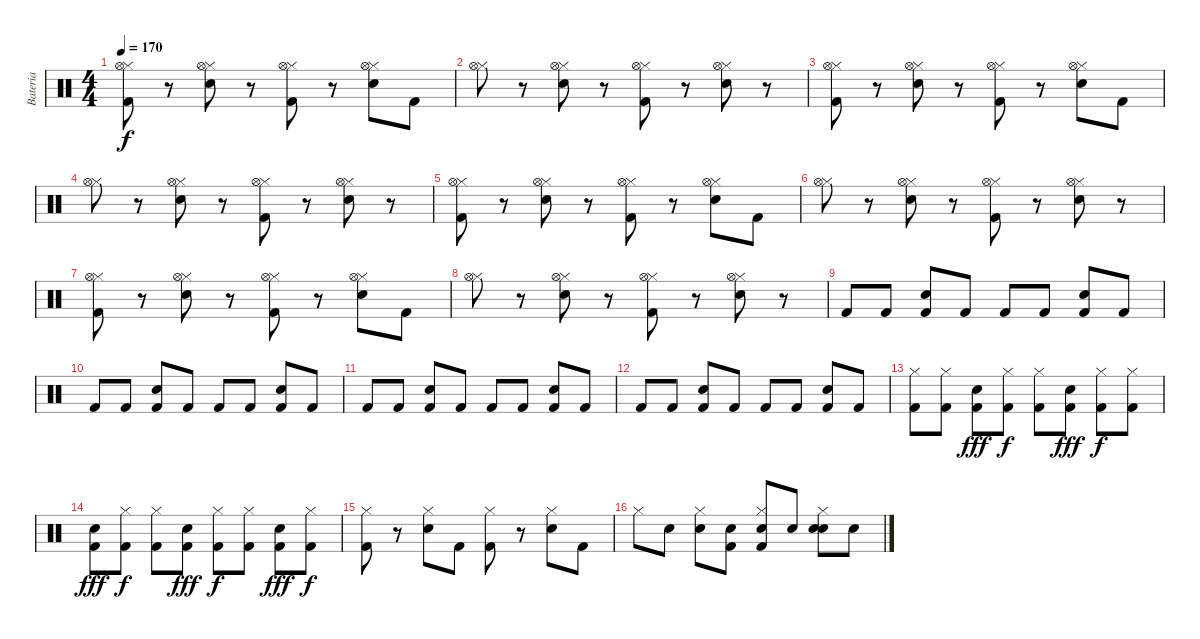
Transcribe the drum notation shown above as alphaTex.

\track ("Bateria" "Bateria") {instrument percussion}
\staff {score}
\articulation defaults
\ts (4 4)
\tempo 170
\clef neutral
\ks c
("Kick (hit) 2" "Hi-Hat (closed)" "Hi-Hat (open)").8{dy f} r.8 ("Snare (hit) 2" "Hi-Hat (closed)" "Hi-Hat (open)").8 r.8 ("Kick (hit) 2" "Hi-Hat (closed)" "Hi-Hat (open)").8 r.8 ("Snare (hit) 2" "Hi-Hat (closed)" "Hi-Hat (open)").8 "Kick (hit) 2".8 |
("Hi-Hat (closed)" "Hi-Hat (open)").8 r.8 ("Snare (hit) 2" "Hi-Hat (closed)" "Hi-Hat (open)").8 r.8 ("Kick (hit) 2" "Hi-Hat (closed)" "Hi-Hat (open)").8 r.8 ("Snare (hit) 2" "Hi-Hat (closed)" "Hi-Hat (open)").8 r.8 |
("Kick (hit) 2" "Hi-Hat (closed)" "Hi-Hat (open)").8 r.8 ("Snare (hit) 2" "Hi-Hat (closed)" "Hi-Hat (open)").8 r.8 ("Kick (hit) 2" "Hi-Hat (closed)" "Hi-Hat (open)").8 r.8 ("Snare (hit) 2" "Hi-Hat (closed)" "Hi-Hat (open)").8 "Kick (hit) 2".8 |
("Hi-Hat (closed)" "Hi-Hat (open)").8 r.8 ("Snare (hit) 2" "Hi-Hat (closed)" "Hi-Hat (open)").8 r.8 ("Kick (hit) 2" "Hi-Hat (closed)" "Hi-Hat (open)").8 r.8 ("Snare (hit) 2" "Hi-Hat (closed)" "Hi-Hat (open)").8 r.8 |
("Kick (hit) 2" "Hi-Hat (closed)" "Hi-Hat (open)").8 r.8 ("Snare (hit) 2" "Hi-Hat (closed)" "Hi-Hat (open)").8 r.8 ("Kick (hit) 2" "Hi-Hat (closed)" "Hi-Hat (open)").8 r.8 ("Snare (hit) 2" "Hi-Hat (closed)" "Hi-Hat (open)").8 "Kick (hit) 2".8 |
("Hi-Hat (closed)" "Hi-Hat (open)").8 r.8 ("Snare (hit) 2" "Hi-Hat (closed)" "Hi-Hat (open)").8 r.8 ("Kick (hit) 2" "Hi-Hat (closed)" "Hi-Hat (open)").8 r.8 ("Snare (hit) 2" "Hi-Hat (closed)" "Hi-Hat (open)").8 r.8 |
("Kick (hit) 2" "Hi-Hat (closed)" "Hi-Hat (open)").8 r.8 ("Snare (hit) 2" "Hi-Hat (closed)" "Hi-Hat (open)").8 r.8 ("Kick (hit) 2" "Hi-Hat (closed)" "Hi-Hat (open)").8 r.8 ("Snare (hit) 2" "Hi-Hat (closed)" "Hi-Hat (open)").8 "Kick (hit) 2".8 |
("Hi-Hat (closed)" "Hi-Hat (open)").8 r.8 ("Snare (hit) 2" "Hi-Hat (closed)" "Hi-Hat (open)").8 r.8 ("Kick (hit) 2" "Hi-Hat (closed)" "Hi-Hat (open)").8 r.8 ("Snare (hit) 2" "Hi-Hat (closed)" "Hi-Hat (open)").8 r.8 |
"Kick (hit) 2".8 "Kick (hit) 2".8 ("Kick (hit) 2" "Snare (hit) 2").8 "Kick (hit) 2".8 "Kick (hit) 2".8 "Kick (hit) 2".8 ("Kick (hit) 2" "Snare (hit) 2").8 "Kick (hit) 2".8 |
"Kick (hit) 2".8 "Kick (hit) 2".8 ("Kick (hit) 2" "Snare (hit) 2").8 "Kick (hit) 2".8 "Kick (hit) 2".8 "Kick (hit) 2".8 ("Kick (hit) 2" "Snare (hit) 2").8 "Kick (hit) 2".8 |
"Kick (hit) 2".8 "Kick (hit) 2".8 ("Kick (hit) 2" "Snare (hit) 2").8 "Kick (hit) 2".8 "Kick (hit) 2".8 "Kick (hit) 2".8 ("Kick (hit) 2" "Snare (hit) 2").8 "Kick (hit) 2".8 |
"Kick (hit) 2".8 "Kick (hit) 2".8 ("Kick (hit) 2" "Snare (hit) 2").8 "Kick (hit) 2".8 "Kick (hit) 2".8 "Kick (hit) 2".8 ("Kick (hit) 2" "Snare (hit) 2").8 "Kick (hit) 2".8 |
("Kick (hit) 2" "Hi-Hat (closed)").8 ("Kick (hit) 2" "Hi-Hat (closed)").8 ("Kick (hit) 2" "Snare (hit) 2").8{dy fff} ("Kick (hit) 2" "Hi-Hat (closed)").8{dy f} ("Kick (hit) 2" "Hi-Hat (closed)").8 ("Kick (hit) 2" "Snare (hit) 2").8{dy fff} ("Kick (hit) 2" "Hi-Hat (closed)").8{dy f} ("Kick (hit) 2" "Hi-Hat (closed)").8 |
("Kick (hit) 2" "Snare (hit) 2").8{dy fff} ("Kick (hit) 2" "Hi-Hat (closed)").8{dy f} ("Kick (hit) 2" "Hi-Hat (closed)").8 ("Kick (hit) 2" "Snare (hit) 2").8{dy fff} ("Kick (hit) 2" "Hi-Hat (closed)").8{dy f} ("Kick (hit) 2" "Hi-Hat (closed)").8 ("Kick (hit) 2" "Snare (hit) 2").8{dy fff} ("Kick (hit) 2" "Hi-Hat (closed)").8{dy f} |
("Kick (hit) 2" "Hi-Hat (closed)").8 r.8 ("Snare (hit) 2" "Hi-Hat (closed)").8 "Kick (hit) 2".8 ("Kick (hit) 2" "Hi-Hat (closed)").8 r.8 ("Snare (hit) 2" "Hi-Hat (closed)").8 "Kick (hit) 2".8 |
"Hi-Hat (closed)".8 "Snare (hit) 2".8 ("Snare (hit) 2" "Hi-Hat (closed)").8 ("Kick (hit) 2" "Snare (hit) 2").8 ("Kick (hit) 2" "Hi-Hat (closed)" "Snare (hit) 2").8 "Snare (hit) 2".8 ("Snare (hit) 2" "Hi-Hat (closed)" "Snare (hit) 2").8 "Snare (hit) 2".8
